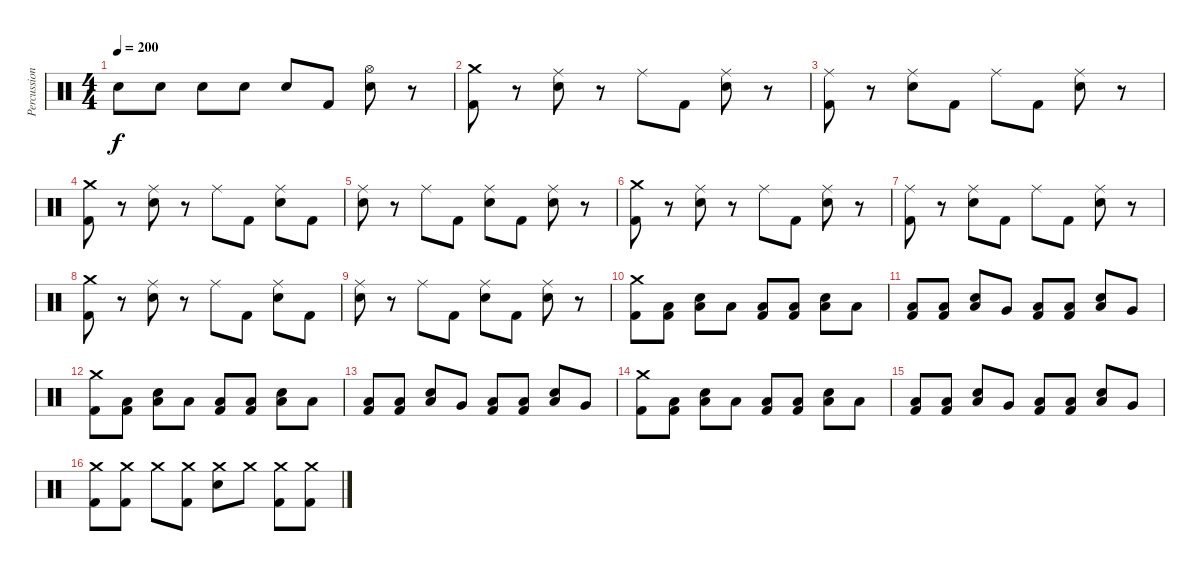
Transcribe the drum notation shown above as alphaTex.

\track ("Percussion" "Percussion") {instrument percussion}
\staff {score}
\articulation defaults
\ts (4 4)
\tempo 200
\clef neutral
\ks c "Snare (hit) 2".8{dy f} "Snare (hit) 2".8 "Snare (hit) 2".8 "Snare (hit) 2".8 "Snare (hit) 2".8 "Kick (hit) 2".8
("Hi-Hat (open)" "Snare (hit) 2").8 r.8 |
("Crash medium (hit)" "Kick (hit) 2").8 r.8 ("Ride (middle)" "Snare (hit) 2").8 r.8 "Ride (middle)".8 "Kick (hit) 2".8 ("Ride (middle)" "Snare (hit) 2").8 r.8 |
("Ride (middle)" "Kick (hit) 2").8 r.8 ("Ride (middle)" "Snare (hit) 2").8 "Kick (hit) 2".8 "Ride (middle)".8 "Kick (hit) 2".8 ("Ride (middle)" "Snare (hit) 2").8 r.8 |
("Crash medium (hit)" "Kick (hit) 2").8 r.8 ("Ride (middle)" "Snare (hit) 2").8 r.8 "Ride (middle)".8 "Kick (hit) 2".8 ("Ride (middle)" "Snare (hit) 2").8 "Kick (hit) 2".8 |
("Ride (middle)" "Snare (hit) 2").8 r.8 "Ride (middle)".8 "Kick (hit) 2".8 ("Ride (middle)" "Snare (hit) 2").8 "Kick (hit) 2".8 ("Ride (middle)" "Snare (hit) 2").8 r.8 |
("Crash medium (hit)" "Kick (hit) 2").8 r.8 ("Ride (middle)" "Snare (hit) 2").8 r.8 "Ride (middle)".8 "Kick (hit) 2".8 ("Ride (middle)" "Snare (hit) 2").8 r.8 |
("Ride (middle)" "Kick (hit) 2").8 r.8 ("Ride (middle)" "Snare (hit) 2").8 "Kick (hit) 2".8 "Ride (middle)".8 "Kick (hit) 2".8 ("Ride (middle)" "Snare (hit) 2").8 r.8 |
("Crash medium (hit)" "Kick (hit) 2").8 r.8 ("Ride (middle)" "Snare (hit) 2").8 r.8 "Ride (middle)".8 "Kick (hit) 2".8 ("Ride (middle)" "Snare (hit) 2").8 "Kick (hit) 2".8 |
("Ride (middle)" "Snare (hit) 2").8 r.8 "Ride (middle)".8 "Kick (hit) 2".8 ("Ride (middle)" "Snare (hit) 2").8 "Kick (hit) 2".8 ("Ride (middle)" "Snare (hit) 2").8 r.8 |
("Crash medium (hit)" "Kick (hit) 2").8 ("Low Floor Tom (hit)" "Kick (hit) 2").8 ("Snare (hit) 2" "Low Floor Tom (hit)").8 "Low Floor Tom (hit)".8 ("Low Floor Tom (hit)" "Kick (hit) 2").8 ("Low Floor Tom (hit)" "Kick (hit) 2").8 ("Snare (hit) 2" "Low Floor Tom (hit)").8 "Low Floor Tom (hit)".8 |
("Low Floor Tom (hit)" "Kick (hit) 2").8 ("Low Floor Tom (hit)" "Kick (hit) 2").8 ("Snare (hit) 2" "Low Floor Tom (hit)").8 "Very Low Tom (hit)".8 ("Low Floor Tom (hit)" "Kick (hit) 2").8 ("Low Floor Tom (hit)" "Kick (hit) 2").8 ("Snare (hit) 2" "Low Floor Tom (hit)").8 "Very Low Tom (hit)".8 |
("Crash medium (hit)" "Kick (hit) 2").8 ("Low Floor Tom (hit)" "Kick (hit) 2").8 ("Snare (hit) 2" "Low Floor Tom (hit)").8 "Low Floor Tom (hit)".8 ("Low Floor Tom (hit)" "Kick (hit) 2").8 ("Low Floor Tom (hit)" "Kick (hit) 2").8 ("Snare (hit) 2" "Low Floor Tom (hit)").8 "Low Floor Tom (hit)".8 |
("Low Floor Tom (hit)" "Kick (hit) 2").8 ("Low Floor Tom (hit)" "Kick (hit) 2").8 ("Snare (hit) 2" "Low Floor Tom (hit)").8 "Very Low Tom (hit)".8 ("Low Floor Tom (hit)" "Kick (hit) 2").8 ("Low Floor Tom (hit)" "Kick (hit) 2").8 ("Snare (hit) 2" "Low Floor Tom (hit)").8 "Very Low Tom (hit)".8 |
("Crash medium (hit)" "Kick (hit) 2").8 ("Low Floor Tom (hit)" "Kick (hit) 2").8 ("Snare (hit) 2" "Low Floor Tom (hit)").8 "Low Floor Tom (hit)".8 ("Low Floor Tom (hit)" "Kick (hit) 2").8 ("Low Floor Tom (hit)" "Kick (hit) 2").8 ("Snare (hit) 2" "Low Floor Tom (hit)").8 "Low Floor Tom (hit)".8 |
("Low Floor Tom (hit)" "Kick (hit) 2").8 ("Low Floor Tom (hit)" "Kick (hit) 2").8 ("Snare (hit) 2" "Low Floor Tom (hit)").8 "Very Low Tom (hit)".8 ("Low Floor Tom (hit)" "Kick (hit) 2").8 ("Low Floor Tom (hit)" "Kick (hit) 2").8 ("Snare (hit) 2" "Low Floor Tom (hit)").8 "Very Low Tom (hit)".8 |
("Crash medium (hit)" "Kick (hit) 2").8 ("Crash medium (hit)" "Kick (hit) 2").8 "Crash medium (hit)".8 ("Crash medium (hit)" "Kick (hit) 2").8 ("Crash medium (hit)" "Snare (hit) 2").8 "Crash medium (hit)".8 ("Crash medium (hit)" "Kick (hit) 2").8 ("Crash medium (hit)" "Kick (hit) 2").8
